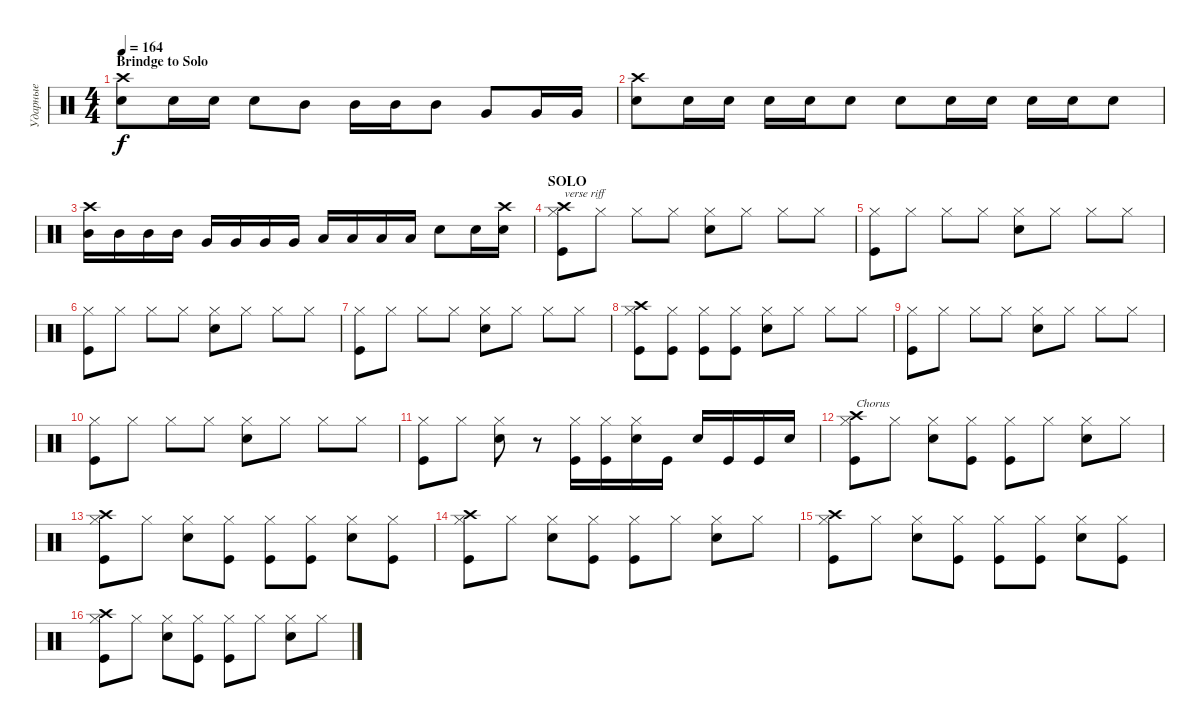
\track ("Ударные" "Ударные") {instrument percussion}
\staff {score}
\articulation defaults
\ts (4 4)
\section ("" "Brindge to Solo")
\tempo 164
\clef neutral
\ks c
("Crash high (hit)" "Snare (hit) 2").8{dy f} "Snare (hit) 2".16 "Snare (hit) 2".16 "Snare (hit) 2".8 "Mid Tom (hit)".8 "Mid Tom (hit)".16 "Mid Tom (hit)".16 "Mid Tom (hit)".8 "Very Low Tom (hit)".8 "Very Low Tom (hit)".16 "Very Low Tom (hit)".16 |
("Crash high (hit)" "Snare (hit) 2").8 "Snare (hit) 2".16 "Snare (hit) 2".16 "Snare (hit) 2".16 "Snare (hit) 2".16 "Snare (hit) 2".8 "Snare (hit) 2".8 "Snare (hit) 2".16 "Snare (hit) 2".16 "Snare (hit) 2".16 "Snare (hit) 2".16 "Snare (hit) 2".8 |
("Crash high (hit)" "Mid Tom (hit)").16 "Mid Tom (hit)".16 "Mid Tom (hit)".16 "Mid Tom (hit)".16 "Very Low Tom (hit)".16 "Very Low Tom (hit)".16 "Very Low Tom (hit)".16 "Very Low Tom (hit)".16 "Low Floor Tom (hit)".16 "Low Floor Tom (hit)".16 "Low Floor Tom (hit)".16 "Low Floor Tom (hit)".16 "Snare (hit) 2".8 "Snare (hit) 2".16 ("Crash high (hit)" "Snare (hit) 2").16 |
\section ("" "SOLO")
("Hi-Hat (closed)" "Crash high (hit)" "Kick (hit)").8{txt "verse riff"} "Hi-Hat (closed)".8 "Hi-Hat (closed)".8 "Hi-Hat (closed)".8 ("Hi-Hat (closed)" "Snare (hit) 2").8 "Hi-Hat (closed)".8 "Hi-Hat (closed)".8 "Hi-Hat (closed)".8 |
("Hi-Hat (closed)" "Kick (hit)").8 "Hi-Hat (closed)".8 "Hi-Hat (closed)".8 "Hi-Hat (closed)".8 ("Hi-Hat (closed)" "Snare (hit) 2").8 "Hi-Hat (closed)".8 "Hi-Hat (closed)".8 "Hi-Hat (closed)".8 |
("Hi-Hat (closed)" "Kick (hit)").8 "Hi-Hat (closed)".8 "Hi-Hat (closed)".8 "Hi-Hat (closed)".8 ("Hi-Hat (closed)" "Snare (hit) 2").8 "Hi-Hat (closed)".8 "Hi-Hat (closed)".8 "Hi-Hat (closed)".8 |
("Hi-Hat (closed)" "Kick (hit)").8 "Hi-Hat (closed)".8 "Hi-Hat (closed)".8 "Hi-Hat (closed)".8 ("Hi-Hat (closed)" "Snare (hit) 2").8 "Hi-Hat (closed)".8 "Hi-Hat (closed)".8 "Hi-Hat (closed)".8 |
("Hi-Hat (closed)" "Crash high (hit)" "Kick (hit)").8 ("Hi-Hat (closed)" "Kick (hit)").8 ("Hi-Hat (closed)" "Kick (hit)").8 ("Hi-Hat (closed)" "Kick (hit)").8 ("Hi-Hat (closed)" "Snare (hit) 2").8 "Hi-Hat (closed)".8 "Hi-Hat (closed)".8 "Hi-Hat (closed)".8 |
("Hi-Hat (closed)" "Kick (hit)").8 "Hi-Hat (closed)".8 "Hi-Hat (closed)".8 "Hi-Hat (closed)".8 ("Hi-Hat (closed)" "Snare (hit) 2").8 "Hi-Hat (closed)".8 "Hi-Hat (closed)".8 "Hi-Hat (closed)".8 |
("Hi-Hat (closed)" "Kick (hit)").8 "Hi-Hat (closed)".8 "Hi-Hat (closed)".8 "Hi-Hat (closed)".8 ("Hi-Hat (closed)" "Snare (hit) 2").8 "Hi-Hat (closed)".8 "Hi-Hat (closed)".8 "Hi-Hat (closed)".8 |
("Hi-Hat (closed)" "Kick (hit)").8 "Hi-Hat (closed)".8 ("Hi-Hat (closed)" "Snare (hit) 2").8 r.8 ("Hi-Hat (closed)" "Kick (hit)").16 ("Hi-Hat (closed)" "Kick (hit)").16 ("Hi-Hat (closed)" "Snare (hit) 2").16 "Kick (hit)".16 "Snare (hit) 2".16 "Kick (hit)".16 "Kick (hit)".16 "Snare (hit) 2".16 |
("Hi-Hat (closed)" "Crash high (hit)" "Kick (hit)").8{txt "Chorus"} "Hi-Hat (closed)".8 ("Hi-Hat (closed)" "Snare (hit) 2").8 ("Hi-Hat (closed)" "Kick (hit)").8 ("Hi-Hat (closed)" "Kick (hit)").8 "Hi-Hat (closed)".8 ("Hi-Hat (closed)" "Snare (hit) 2").8 "Hi-Hat (closed)".8 |
("Hi-Hat (closed)" "Crash high (hit)" "Kick (hit)").8 "Hi-Hat (closed)".8 ("Hi-Hat (closed)" "Snare (hit) 2").8 ("Hi-Hat (closed)" "Kick (hit)").8 ("Hi-Hat (closed)" "Kick (hit)").8 ("Hi-Hat (closed)" "Kick (hit)").8 ("Hi-Hat (closed)" "Snare (hit) 2").8 ("Hi-Hat (closed)" "Kick (hit)").8 |
("Hi-Hat (closed)" "Crash high (hit)" "Kick (hit)").8 "Hi-Hat (closed)".8 ("Hi-Hat (closed)" "Snare (hit) 2").8 ("Hi-Hat (closed)" "Kick (hit)").8 ("Hi-Hat (closed)" "Kick (hit)").8 "Hi-Hat (closed)".8 ("Hi-Hat (closed)" "Snare (hit) 2").8 "Hi-Hat (closed)".8 |
("Hi-Hat (closed)" "Crash high (hit)" "Kick (hit)").8 "Hi-Hat (closed)".8 ("Hi-Hat (closed)" "Snare (hit) 2").8 ("Hi-Hat (closed)" "Kick (hit)").8 ("Hi-Hat (closed)" "Kick (hit)").8 ("Hi-Hat (closed)" "Kick (hit)").8 ("Hi-Hat (closed)" "Snare (hit) 2").8 ("Hi-Hat (closed)" "Kick (hit)").8 |
("Hi-Hat (closed)" "Crash high (hit)" "Kick (hit)").8 "Hi-Hat (closed)".8 ("Hi-Hat (closed)" "Snare (hit) 2").8 ("Hi-Hat (closed)" "Kick (hit)").8 ("Hi-Hat (closed)" "Kick (hit)").8 "Hi-Hat (closed)".8 ("Hi-Hat (closed)" "Snare (hit) 2").8 "Hi-Hat (closed)".8
